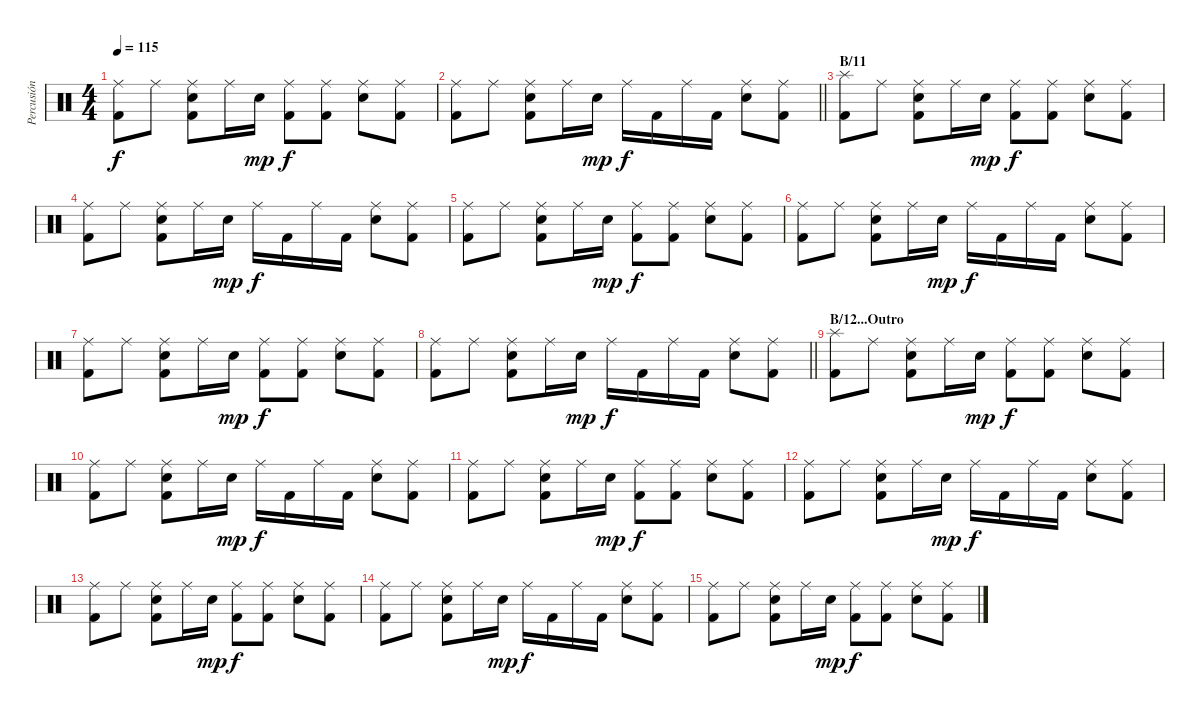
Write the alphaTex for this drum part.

\track ("Percusión" "Percusión") {instrument percussion}
\staff {score}
\articulation defaults
\ts (4 4)
\tempo 115
\clef neutral
\ks c
("Ride (middle)" "Kick (hit) 2").8{dy f} "Ride (middle)".8 ("Ride (middle)" "Snare (hit) 2" "Kick (hit) 2").8 "Ride (middle)".16 "Snare (hit) 2".16{dy mp} ("Ride (middle)" "Kick (hit) 2").8{dy f} ("Ride (middle)" "Kick (hit) 2").8 ("Ride (middle)" "Snare (hit) 2").8 ("Ride (middle)" "Kick (hit) 2").8 |
\barLineRight lightlight
("Ride (middle)" "Kick (hit) 2").8 "Ride (middle)".8 ("Ride (middle)" "Snare (hit) 2" "Kick (hit) 2").8 "Ride (middle)".16 "Snare (hit) 2".16{dy mp} "Ride (middle)".16{dy f} "Kick (hit) 2".16 "Ride (middle)".16 "Kick (hit) 2".16 ("Ride (middle)" "Snare (hit) 2").8 ("Ride (middle)" "Kick (hit) 2").8 |
\section ("" "B/11")
("Splash (hit)" "Kick (hit) 2").8 "Ride (middle)".8 ("Ride (middle)" "Snare (hit) 2" "Kick (hit) 2").8 "Ride (middle)".16 "Snare (hit) 2".16{dy mp} ("Ride (middle)" "Kick (hit) 2").8{dy f} ("Ride (middle)" "Kick (hit) 2").8 ("Ride (middle)" "Snare (hit) 2").8 ("Ride (middle)" "Kick (hit) 2").8 |
("Ride (middle)" "Kick (hit) 2").8 "Ride (middle)".8 ("Ride (middle)" "Snare (hit) 2" "Kick (hit) 2").8 "Ride (middle)".16 "Snare (hit) 2".16{dy mp} "Ride (middle)".16{dy f} "Kick (hit) 2".16 "Ride (middle)".16 "Kick (hit) 2".16 ("Ride (middle)" "Snare (hit) 2").8 ("Ride (middle)" "Kick (hit) 2").8 |
("Ride (middle)" "Kick (hit) 2").8 "Ride (middle)".8 ("Ride (middle)" "Snare (hit) 2" "Kick (hit) 2").8 "Ride (middle)".16 "Snare (hit) 2".16{dy mp} ("Ride (middle)" "Kick (hit) 2").8{dy f} ("Ride (middle)" "Kick (hit) 2").8 ("Ride (middle)" "Snare (hit) 2").8 ("Ride (middle)" "Kick (hit) 2").8 |
("Ride (middle)" "Kick (hit) 2").8 "Ride (middle)".8 ("Ride (middle)" "Snare (hit) 2" "Kick (hit) 2").8 "Ride (middle)".16 "Snare (hit) 2".16{dy mp} "Ride (middle)".16{dy f} "Kick (hit) 2".16 "Ride (middle)".16 "Kick (hit) 2".16 ("Ride (middle)" "Snare (hit) 2").8 ("Ride (middle)" "Kick (hit) 2").8 |
("Ride (middle)" "Kick (hit) 2").8 "Ride (middle)".8 ("Ride (middle)" "Snare (hit) 2" "Kick (hit) 2").8 "Ride (middle)".16 "Snare (hit) 2".16{dy mp} ("Ride (middle)" "Kick (hit) 2").8{dy f} ("Ride (middle)" "Kick (hit) 2").8 ("Ride (middle)" "Snare (hit) 2").8 ("Ride (middle)" "Kick (hit) 2").8 |
\barLineRight lightlight
("Ride (middle)" "Kick (hit) 2").8 "Ride (middle)".8 ("Ride (middle)" "Snare (hit) 2" "Kick (hit) 2").8 "Ride (middle)".16 "Snare (hit) 2".16{dy mp} "Ride (middle)".16{dy f} "Kick (hit) 2".16 "Ride (middle)".16 "Kick (hit) 2".16 ("Ride (middle)" "Snare (hit) 2").8 ("Ride (middle)" "Kick (hit) 2").8 |
\section ("" "B/12...Outro")
("Splash (hit)" "Kick (hit) 2").8 "Ride (middle)".8 ("Ride (middle)" "Snare (hit) 2" "Kick (hit) 2").8 "Ride (middle)".16 "Snare (hit) 2".16{dy mp} ("Ride (middle)" "Kick (hit) 2").8{dy f} ("Ride (middle)" "Kick (hit) 2").8 ("Ride (middle)" "Snare (hit) 2").8 ("Ride (middle)" "Kick (hit) 2").8 |
("Ride (middle)" "Kick (hit) 2").8{volume 10} "Ride (middle)".8 ("Ride (middle)" "Snare (hit) 2" "Kick (hit) 2").8 "Ride (middle)".16 "Snare (hit) 2".16{dy mp} "Ride (middle)".16{dy f} "Kick (hit) 2".16 "Ride (middle)".16 "Kick (hit) 2".16 ("Ride (middle)" "Snare (hit) 2").8 ("Ride (middle)" "Kick (hit) 2").8 |
("Ride (middle)" "Kick (hit) 2").8 "Ride (middle)".8 ("Ride (middle)" "Snare (hit) 2" "Kick (hit) 2").8 "Ride (middle)".16 "Snare (hit) 2".16{dy mp} ("Ride (middle)" "Kick (hit) 2").8{dy f} ("Ride (middle)" "Kick (hit) 2").8 ("Ride (middle)" "Snare (hit) 2").8 ("Ride (middle)" "Kick (hit) 2").8 |
("Ride (middle)" "Kick (hit) 2").8{volume 0} "Ride (middle)".8 ("Ride (middle)" "Snare (hit) 2" "Kick (hit) 2").8 "Ride (middle)".16 "Snare (hit) 2".16{dy mp} "Ride (middle)".16{dy f} "Kick (hit) 2".16 "Ride (middle)".16 "Kick (hit) 2".16 ("Ride (middle)" "Snare (hit) 2").8 ("Ride (middle)" "Kick (hit) 2").8 |
("Ride (middle)" "Kick (hit) 2").8 "Ride (middle)".8 ("Ride (middle)" "Snare (hit) 2" "Kick (hit) 2").8 "Ride (middle)".16 "Snare (hit) 2".16{dy mp} ("Ride (middle)" "Kick (hit) 2").8{dy f} ("Ride (middle)" "Kick (hit) 2").8 ("Ride (middle)" "Snare (hit) 2").8 ("Ride (middle)" "Kick (hit) 2").8 |
("Ride (middle)" "Kick (hit) 2").8 "Ride (middle)".8 ("Ride (middle)" "Snare (hit) 2" "Kick (hit) 2").8 "Ride (middle)".16 "Snare (hit) 2".16{dy mp} "Ride (middle)".16{dy f} "Kick (hit) 2".16 "Ride (middle)".16 "Kick (hit) 2".16 ("Ride (middle)" "Snare (hit) 2").8 ("Ride (middle)" "Kick (hit) 2").8 |
("Ride (middle)" "Kick (hit) 2").8 "Ride (middle)".8 ("Ride (middle)" "Snare (hit) 2" "Kick (hit) 2").8 "Ride (middle)".16 "Snare (hit) 2".16{dy mp} ("Ride (middle)" "Kick (hit) 2").8{dy f} ("Ride (middle)" "Kick (hit) 2").8 ("Ride (middle)" "Snare (hit) 2").8 ("Ride (middle)" "Kick (hit) 2").8
